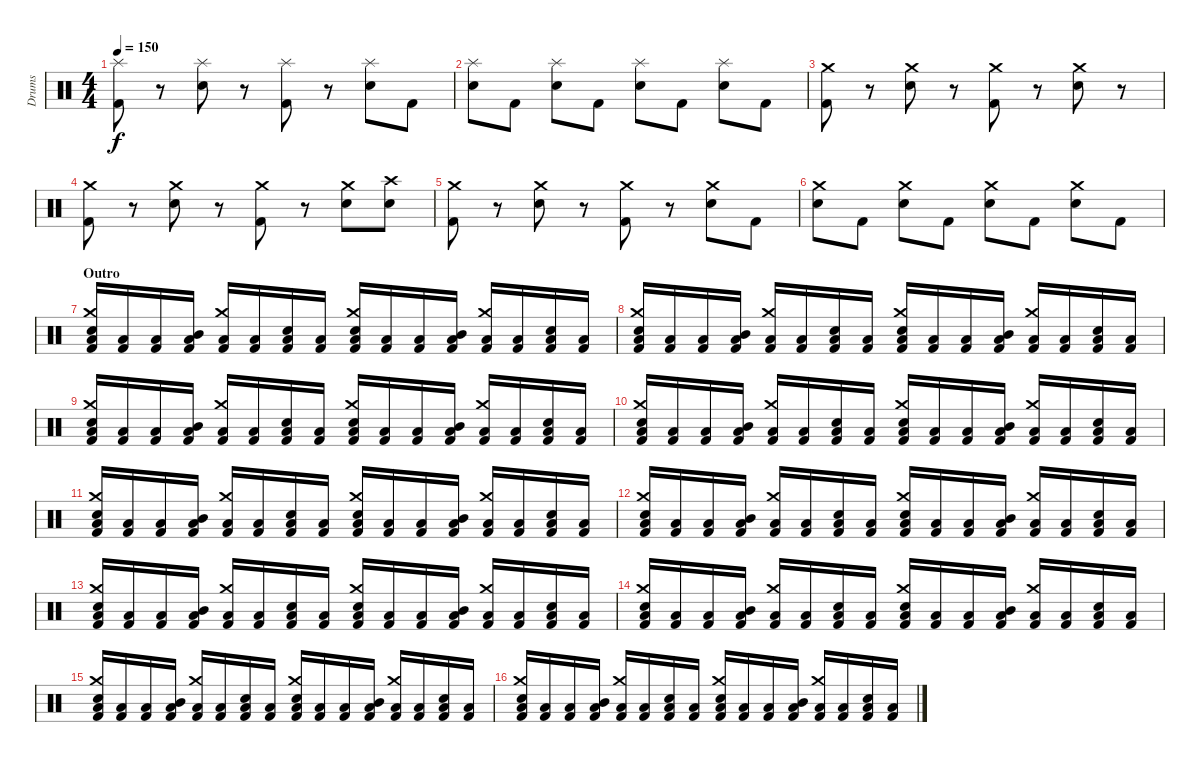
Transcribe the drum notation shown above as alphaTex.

\track ("Drums" "Drums") {instrument percussion}
\staff {score}
\articulation defaults
\ts (4 4)
\tempo 150
\clef neutral
\ks c
("Splash (hit)" "Kick (hit) 2").8{dy f} r.8 ("Splash (hit)" "Electric Snare (hit)").8 r.8 ("Splash (hit)" "Kick (hit) 2").8 r.8 ("Splash (hit)" "Electric Snare (hit)").8 "Kick (hit) 2".8 |
("Splash (hit)" "Electric Snare (hit)").8 "Kick (hit) 2".8 ("Splash (hit)" "Electric Snare (hit)").8 "Kick (hit) 2".8 ("Splash (hit)" "Electric Snare (hit)").8 "Kick (hit) 2".8 ("Splash (hit)" "Electric Snare (hit)").8 "Kick (hit) 2".8 |
("Crash medium (hit)" "Kick (hit) 2").8 r.8 ("Crash medium (hit)" "Electric Snare (hit)").8 r.8 ("Crash medium (hit)" "Kick (hit) 2").8 r.8 ("Crash medium (hit)" "Electric Snare (hit)").8 r.8 |
("Crash medium (hit)" "Kick (hit) 2").8 r.8 ("Crash medium (hit)" "Electric Snare (hit)").8 r.8 ("Crash medium (hit)" "Kick (hit) 2").8 r.8 ("Crash medium (hit)" "Electric Snare (hit)").8 ("Crash high (hit)" "Electric Snare (hit)").8 |
("Crash medium (hit)" "Kick (hit) 2").8 r.8 ("Crash medium (hit)" "Electric Snare (hit)").8 r.8 ("Crash medium (hit)" "Kick (hit) 2").8 r.8 ("Crash medium (hit)" "Electric Snare (hit)").8 "Kick (hit) 2".8 |
("Crash medium (hit)" "Electric Snare (hit)").8 "Kick (hit) 2".8 ("Crash medium (hit)" "Electric Snare (hit)").8 "Kick (hit) 2".8 ("Crash medium (hit)" "Electric Snare (hit)").8 "Kick (hit) 2".8 ("Crash medium (hit)" "Electric Snare (hit)").8 "Kick (hit) 2".8 |
\section ("" "Outro")
("Crash medium (hit)" "Electric Snare (hit)" "Low Floor Tom (hit)" "Kick (hit) 2").16 ("Low Floor Tom (hit)" "Kick (hit) 2").16 ("Low Floor Tom (hit)" "Kick (hit) 2").16 ("Mid Tom (hit)" "Low Floor Tom (hit)" "Kick (hit) 2").16 ("Crash medium (hit)" "Low Floor Tom (hit)" "Kick (hit) 2").16 ("Low Floor Tom (hit)" "Kick (hit) 2").16 ("Electric Snare (hit)" "Low Floor Tom (hit)" "Kick (hit) 2").16 ("Low Floor Tom (hit)" "Kick (hit) 2").16 ("Crash medium (hit)" "Electric Snare (hit)" "Low Floor Tom (hit)" "Kick (hit) 2").16 ("Low Floor Tom (hit)" "Kick (hit) 2").16 ("Low Floor Tom (hit)" "Kick (hit) 2").16 ("Mid Tom (hit)" "Low Floor Tom (hit)" "Kick (hit) 2").16 ("Crash medium (hit)" "Low Floor Tom (hit)" "Kick (hit) 2").16 ("Low Floor Tom (hit)" "Kick (hit) 2").16 ("Electric Snare (hit)" "Low Floor Tom (hit)" "Kick (hit) 2").16 ("Low Floor Tom (hit)" "Kick (hit) 2").16 |
("Crash medium (hit)" "Electric Snare (hit)" "Low Floor Tom (hit)" "Kick (hit) 2").16 ("Low Floor Tom (hit)" "Kick (hit) 2").16 ("Low Floor Tom (hit)" "Kick (hit) 2").16 ("Mid Tom (hit)" "Low Floor Tom (hit)" "Kick (hit) 2").16 ("Crash medium (hit)" "Low Floor Tom (hit)" "Kick (hit) 2").16 ("Low Floor Tom (hit)" "Kick (hit) 2").16 ("Electric Snare (hit)" "Low Floor Tom (hit)" "Kick (hit) 2").16 ("Low Floor Tom (hit)" "Kick (hit) 2").16 ("Crash medium (hit)" "Electric Snare (hit)" "Low Floor Tom (hit)" "Kick (hit) 2").16 ("Low Floor Tom (hit)" "Kick (hit) 2").16 ("Low Floor Tom (hit)" "Kick (hit) 2").16 ("Mid Tom (hit)" "Low Floor Tom (hit)" "Kick (hit) 2").16 ("Crash medium (hit)" "Low Floor Tom (hit)" "Kick (hit) 2").16 ("Low Floor Tom (hit)" "Kick (hit) 2").16 ("Electric Snare (hit)" "Low Floor Tom (hit)" "Kick (hit) 2").16 ("Low Floor Tom (hit)" "Kick (hit) 2").16 |
("Crash medium (hit)" "Electric Snare (hit)" "Low Floor Tom (hit)" "Kick (hit) 2").16 ("Low Floor Tom (hit)" "Kick (hit) 2").16 ("Low Floor Tom (hit)" "Kick (hit) 2").16 ("Mid Tom (hit)" "Low Floor Tom (hit)" "Kick (hit) 2").16 ("Crash medium (hit)" "Low Floor Tom (hit)" "Kick (hit) 2").16 ("Low Floor Tom (hit)" "Kick (hit) 2").16 ("Electric Snare (hit)" "Low Floor Tom (hit)" "Kick (hit) 2").16 ("Low Floor Tom (hit)" "Kick (hit) 2").16 ("Crash medium (hit)" "Electric Snare (hit)" "Low Floor Tom (hit)" "Kick (hit) 2").16 ("Low Floor Tom (hit)" "Kick (hit) 2").16 ("Low Floor Tom (hit)" "Kick (hit) 2").16 ("Mid Tom (hit)" "Low Floor Tom (hit)" "Kick (hit) 2").16 ("Crash medium (hit)" "Low Floor Tom (hit)" "Kick (hit) 2").16 ("Low Floor Tom (hit)" "Kick (hit) 2").16 ("Electric Snare (hit)" "Low Floor Tom (hit)" "Kick (hit) 2").16 ("Low Floor Tom (hit)" "Kick (hit) 2").16 |
("Crash medium (hit)" "Electric Snare (hit)" "Low Floor Tom (hit)" "Kick (hit) 2").16 ("Low Floor Tom (hit)" "Kick (hit) 2").16 ("Low Floor Tom (hit)" "Kick (hit) 2").16 ("Mid Tom (hit)" "Low Floor Tom (hit)" "Kick (hit) 2").16 ("Crash medium (hit)" "Low Floor Tom (hit)" "Kick (hit) 2").16 ("Low Floor Tom (hit)" "Kick (hit) 2").16 ("Electric Snare (hit)" "Low Floor Tom (hit)" "Kick (hit) 2").16 ("Low Floor Tom (hit)" "Kick (hit) 2").16 ("Crash medium (hit)" "Electric Snare (hit)" "Low Floor Tom (hit)" "Kick (hit) 2").16 ("Low Floor Tom (hit)" "Kick (hit) 2").16 ("Low Floor Tom (hit)" "Kick (hit) 2").16 ("Mid Tom (hit)" "Low Floor Tom (hit)" "Kick (hit) 2").16 ("Crash medium (hit)" "Low Floor Tom (hit)" "Kick (hit) 2").16 ("Low Floor Tom (hit)" "Kick (hit) 2").16 ("Electric Snare (hit)" "Low Floor Tom (hit)" "Kick (hit) 2").16 ("Low Floor Tom (hit)" "Kick (hit) 2").16 |
("Crash medium (hit)" "Electric Snare (hit)" "Low Floor Tom (hit)" "Kick (hit) 2").16 ("Low Floor Tom (hit)" "Kick (hit) 2").16 ("Low Floor Tom (hit)" "Kick (hit) 2").16 ("Mid Tom (hit)" "Low Floor Tom (hit)" "Kick (hit) 2").16 ("Crash medium (hit)" "Low Floor Tom (hit)" "Kick (hit) 2").16 ("Low Floor Tom (hit)" "Kick (hit) 2").16 ("Electric Snare (hit)" "Low Floor Tom (hit)" "Kick (hit) 2").16 ("Low Floor Tom (hit)" "Kick (hit) 2").16 ("Crash medium (hit)" "Electric Snare (hit)" "Low Floor Tom (hit)" "Kick (hit) 2").16 ("Low Floor Tom (hit)" "Kick (hit) 2").16 ("Low Floor Tom (hit)" "Kick (hit) 2").16 ("Mid Tom (hit)" "Low Floor Tom (hit)" "Kick (hit) 2").16 ("Crash medium (hit)" "Low Floor Tom (hit)" "Kick (hit) 2").16 ("Low Floor Tom (hit)" "Kick (hit) 2").16 ("Electric Snare (hit)" "Low Floor Tom (hit)" "Kick (hit) 2").16 ("Low Floor Tom (hit)" "Kick (hit) 2").16 |
("Crash medium (hit)" "Electric Snare (hit)" "Low Floor Tom (hit)" "Kick (hit) 2").16 ("Low Floor Tom (hit)" "Kick (hit) 2").16 ("Low Floor Tom (hit)" "Kick (hit) 2").16 ("Mid Tom (hit)" "Low Floor Tom (hit)" "Kick (hit) 2").16 ("Crash medium (hit)" "Low Floor Tom (hit)" "Kick (hit) 2").16 ("Low Floor Tom (hit)" "Kick (hit) 2").16 ("Electric Snare (hit)" "Low Floor Tom (hit)" "Kick (hit) 2").16 ("Low Floor Tom (hit)" "Kick (hit) 2").16 ("Crash medium (hit)" "Electric Snare (hit)" "Low Floor Tom (hit)" "Kick (hit) 2").16 ("Low Floor Tom (hit)" "Kick (hit) 2").16 ("Low Floor Tom (hit)" "Kick (hit) 2").16 ("Mid Tom (hit)" "Low Floor Tom (hit)" "Kick (hit) 2").16 ("Crash medium (hit)" "Low Floor Tom (hit)" "Kick (hit) 2").16 ("Low Floor Tom (hit)" "Kick (hit) 2").16 ("Electric Snare (hit)" "Low Floor Tom (hit)" "Kick (hit) 2").16 ("Low Floor Tom (hit)" "Kick (hit) 2").16 |
("Crash medium (hit)" "Electric Snare (hit)" "Low Floor Tom (hit)" "Kick (hit) 2").16 ("Low Floor Tom (hit)" "Kick (hit) 2").16 ("Low Floor Tom (hit)" "Kick (hit) 2").16 ("Mid Tom (hit)" "Low Floor Tom (hit)" "Kick (hit) 2").16 ("Crash medium (hit)" "Low Floor Tom (hit)" "Kick (hit) 2").16 ("Low Floor Tom (hit)" "Kick (hit) 2").16 ("Electric Snare (hit)" "Low Floor Tom (hit)" "Kick (hit) 2").16 ("Low Floor Tom (hit)" "Kick (hit) 2").16 ("Crash medium (hit)" "Electric Snare (hit)" "Low Floor Tom (hit)" "Kick (hit) 2").16 ("Low Floor Tom (hit)" "Kick (hit) 2").16 ("Low Floor Tom (hit)" "Kick (hit) 2").16 ("Mid Tom (hit)" "Low Floor Tom (hit)" "Kick (hit) 2").16 ("Crash medium (hit)" "Low Floor Tom (hit)" "Kick (hit) 2").16 ("Low Floor Tom (hit)" "Kick (hit) 2").16 ("Electric Snare (hit)" "Low Floor Tom (hit)" "Kick (hit) 2").16 ("Low Floor Tom (hit)" "Kick (hit) 2").16 |
("Crash medium (hit)" "Electric Snare (hit)" "Low Floor Tom (hit)" "Kick (hit) 2").16 ("Low Floor Tom (hit)" "Kick (hit) 2").16 ("Low Floor Tom (hit)" "Kick (hit) 2").16 ("Mid Tom (hit)" "Low Floor Tom (hit)" "Kick (hit) 2").16 ("Crash medium (hit)" "Low Floor Tom (hit)" "Kick (hit) 2").16 ("Low Floor Tom (hit)" "Kick (hit) 2").16 ("Electric Snare (hit)" "Low Floor Tom (hit)" "Kick (hit) 2").16 ("Low Floor Tom (hit)" "Kick (hit) 2").16 ("Crash medium (hit)" "Electric Snare (hit)" "Low Floor Tom (hit)" "Kick (hit) 2").16 ("Low Floor Tom (hit)" "Kick (hit) 2").16 ("Low Floor Tom (hit)" "Kick (hit) 2").16 ("Mid Tom (hit)" "Low Floor Tom (hit)" "Kick (hit) 2").16 ("Crash medium (hit)" "Low Floor Tom (hit)" "Kick (hit) 2").16 ("Low Floor Tom (hit)" "Kick (hit) 2").16 ("Electric Snare (hit)" "Low Floor Tom (hit)" "Kick (hit) 2").16 ("Low Floor Tom (hit)" "Kick (hit) 2").16 |
("Crash medium (hit)" "Electric Snare (hit)" "Low Floor Tom (hit)" "Kick (hit) 2").16 ("Low Floor Tom (hit)" "Kick (hit) 2").16 ("Low Floor Tom (hit)" "Kick (hit) 2").16 ("Mid Tom (hit)" "Low Floor Tom (hit)" "Kick (hit) 2").16 ("Crash medium (hit)" "Low Floor Tom (hit)" "Kick (hit) 2").16 ("Low Floor Tom (hit)" "Kick (hit) 2").16 ("Electric Snare (hit)" "Low Floor Tom (hit)" "Kick (hit) 2").16 ("Low Floor Tom (hit)" "Kick (hit) 2").16 ("Crash medium (hit)" "Electric Snare (hit)" "Low Floor Tom (hit)" "Kick (hit) 2").16 ("Low Floor Tom (hit)" "Kick (hit) 2").16 ("Low Floor Tom (hit)" "Kick (hit) 2").16 ("Mid Tom (hit)" "Low Floor Tom (hit)" "Kick (hit) 2").16 ("Crash medium (hit)" "Low Floor Tom (hit)" "Kick (hit) 2").16 ("Low Floor Tom (hit)" "Kick (hit) 2").16 ("Electric Snare (hit)" "Low Floor Tom (hit)" "Kick (hit) 2").16 ("Low Floor Tom (hit)" "Kick (hit) 2").16 |
("Crash medium (hit)" "Electric Snare (hit)" "Low Floor Tom (hit)" "Kick (hit) 2").16 ("Low Floor Tom (hit)" "Kick (hit) 2").16 ("Low Floor Tom (hit)" "Kick (hit) 2").16 ("Mid Tom (hit)" "Low Floor Tom (hit)" "Kick (hit) 2").16 ("Crash medium (hit)" "Low Floor Tom (hit)" "Kick (hit) 2").16 ("Low Floor Tom (hit)" "Kick (hit) 2").16 ("Electric Snare (hit)" "Low Floor Tom (hit)" "Kick (hit) 2").16 ("Low Floor Tom (hit)" "Kick (hit) 2").16 ("Crash medium (hit)" "Electric Snare (hit)" "Low Floor Tom (hit)" "Kick (hit) 2").16 ("Low Floor Tom (hit)" "Kick (hit) 2").16 ("Low Floor Tom (hit)" "Kick (hit) 2").16 ("Mid Tom (hit)" "Low Floor Tom (hit)" "Kick (hit) 2").16 ("Crash medium (hit)" "Low Floor Tom (hit)" "Kick (hit) 2").16 ("Low Floor Tom (hit)" "Kick (hit) 2").16 ("Electric Snare (hit)" "Low Floor Tom (hit)" "Kick (hit) 2").16 ("Low Floor Tom (hit)" "Kick (hit) 2").16
